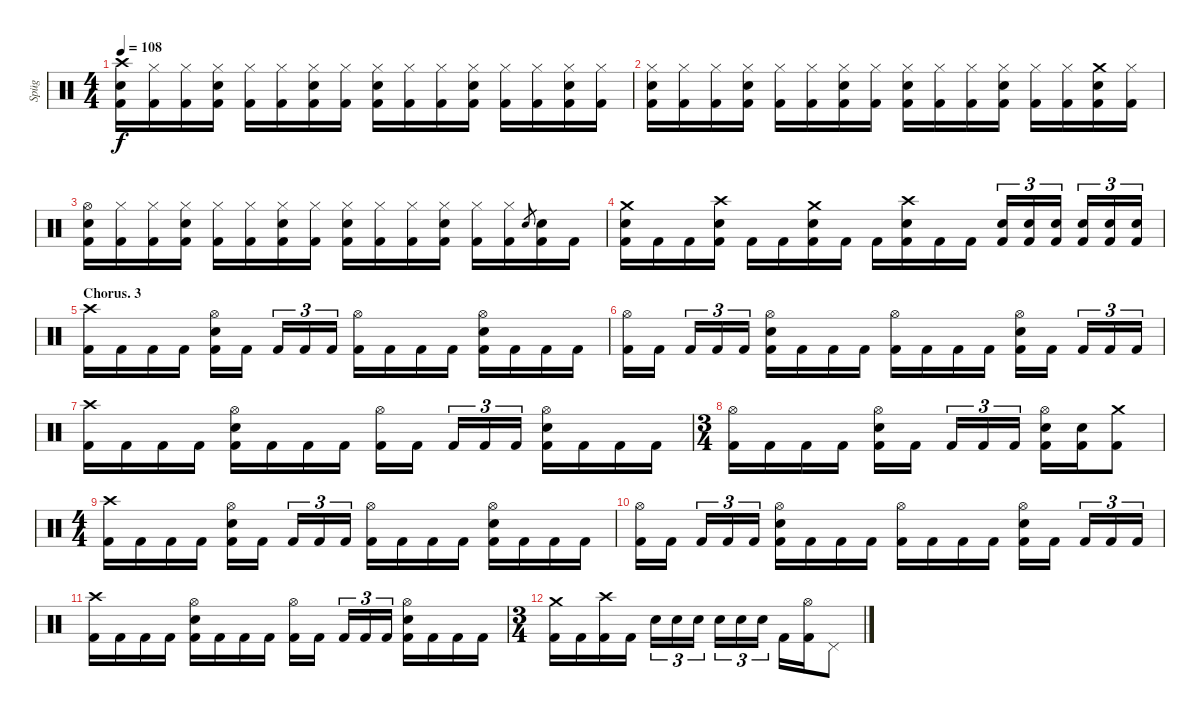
\track ("Spüg" "Spüg") {instrument percussion}
\staff {score}
\articulation defaults
\ts (4 4)
\tempo 108
\clef neutral
\ks c
("Crash high (hit)" "Electric Snare (hit)" "Kick (hit) 2").16{dy f} ("Hi-Hat (closed)" "Kick (hit) 2").16 ("Hi-Hat (closed)" "Kick (hit) 2").16 ("Hi-Hat (closed)" "Electric Snare (hit)" "Kick (hit) 2").16 ("Hi-Hat (closed)" "Kick (hit) 2").16 ("Hi-Hat (closed)" "Kick (hit) 2").16 ("Hi-Hat (closed)" "Electric Snare (hit)" "Kick (hit) 2").16 ("Hi-Hat (closed)" "Kick (hit) 2").16 ("Hi-Hat (closed)" "Electric Snare (hit)" "Kick (hit) 2").16 ("Hi-Hat (closed)" "Kick (hit) 2").16 ("Hi-Hat (closed)" "Kick (hit) 2").16 ("Hi-Hat (closed)" "Electric Snare (hit)" "Kick (hit) 2").16 ("Hi-Hat (closed)" "Kick (hit) 2").16 ("Hi-Hat (closed)" "Kick (hit) 2").16 ("Hi-Hat (closed)" "Electric Snare (hit)" "Kick (hit) 2").16 ("Hi-Hat (closed)" "Kick (hit) 2").16 |
("Hi-Hat (closed)" "Electric Snare (hit)" "Kick (hit) 2").16 ("Hi-Hat (closed)" "Kick (hit) 2").16 ("Hi-Hat (closed)" "Kick (hit) 2").16 ("Hi-Hat (closed)" "Electric Snare (hit)" "Kick (hit) 2").16 ("Hi-Hat (closed)" "Kick (hit) 2").16 ("Hi-Hat (closed)" "Kick (hit) 2").16 ("Hi-Hat (closed)" "Electric Snare (hit)" "Kick (hit) 2").16 ("Hi-Hat (closed)" "Kick (hit) 2").16 ("Hi-Hat (closed)" "Electric Snare (hit)" "Kick (hit) 2").16 ("Hi-Hat (closed)" "Kick (hit) 2").16 ("Hi-Hat (closed)" "Kick (hit) 2").16 ("Hi-Hat (closed)" "Electric Snare (hit)" "Kick (hit) 2").16 ("Hi-Hat (closed)" "Kick (hit) 2").16 ("Hi-Hat (closed)" "Kick (hit) 2").16 ("Crash medium (hit)" "Electric Snare (hit)" "Kick (hit) 2").16 ("Hi-Hat (closed)" "Kick (hit) 2").16 |
("Hi-Hat (open)" "Electric Snare (hit)" "Kick (hit) 2").16 ("Hi-Hat (closed)" "Kick (hit) 2").16 ("Hi-Hat (closed)" "Kick (hit) 2").16 ("Hi-Hat (closed)" "Electric Snare (hit)" "Kick (hit) 2").16 ("Hi-Hat (closed)" "Kick (hit) 2").16 ("Hi-Hat (closed)" "Kick (hit) 2").16 ("Hi-Hat (closed)" "Electric Snare (hit)" "Kick (hit) 2").16 ("Hi-Hat (closed)" "Kick (hit) 2").16 ("Hi-Hat (closed)" "Electric Snare (hit)" "Kick (hit) 2").16 ("Hi-Hat (closed)" "Kick (hit) 2").16 ("Hi-Hat (closed)" "Kick (hit) 2").16 ("Hi-Hat (closed)" "Electric Snare (hit)" "Kick (hit) 2").16 ("Hi-Hat (closed)" "Kick (hit) 2").16 ("Hi-Hat (closed)" "Kick (hit) 2").16 "Electric Snare (hit)".8{gr} ("Electric Snare (hit)" "Kick (hit) 2").16 "Kick (hit) 2".16 |
("Crash medium (hit)" "Electric Snare (hit)" "Kick (hit) 2").16 "Kick (hit) 2".16 "Kick (hit) 2".16 ("Crash high (hit)" "Electric Snare (hit)" "Kick (hit) 2").16 "Kick (hit) 2".16 "Kick (hit) 2".16 ("Crash medium (hit)" "Electric Snare (hit)" "Kick (hit) 2").16 "Kick (hit) 2".16 "Kick (hit) 2".16 ("Crash high (hit)" "Electric Snare (hit)" "Kick (hit) 2").16 "Kick (hit) 2".16 "Kick (hit) 2".16 ("Electric Snare (hit)" "Kick (hit) 2").16{tu (3 2)} ("Electric Snare (hit)" "Kick (hit) 2").16{tu (3 2)} ("Electric Snare (hit)" "Kick (hit) 2").16{tu (3 2)} ("Electric Snare (hit)" "Kick (hit) 2").16{tu (3 2)} ("Electric Snare (hit)" "Kick (hit) 2").16{tu (3 2)} ("Electric Snare (hit)" "Kick (hit) 2").16{tu (3 2)} |
\section ("" "Chorus. 3")
("Crash high (hit)" "Kick (hit) 2").16 "Kick (hit) 2".16 "Kick (hit) 2".16 "Kick (hit) 2".16 ("Hi-Hat (open)" "Electric Snare (hit)" "Kick (hit) 2").16 "Kick (hit) 2".16 "Kick (hit) 2".16{tu (3 2)} "Kick (hit) 2".16{tu (3 2)} "Kick (hit) 2".16{tu (3 2)} ("Hi-Hat (open)" "Kick (hit) 2").16 "Kick (hit) 2".16 "Kick (hit) 2".16 "Kick (hit) 2".16 ("Hi-Hat (open)" "Electric Snare (hit)" "Kick (hit) 2").16 "Kick (hit) 2".16 "Kick (hit) 2".16 "Kick (hit) 2".16 |
("Hi-Hat (open)" "Kick (hit) 2").16 "Kick (hit) 2".16 "Kick (hit) 2".16{tu (3 2)} "Kick (hit) 2".16{tu (3 2)} "Kick (hit) 2".16{tu (3 2)} ("Hi-Hat (open)" "Electric Snare (hit)" "Kick (hit) 2").16 "Kick (hit) 2".16 "Kick (hit) 2".16 "Kick (hit) 2".16 ("Hi-Hat (open)" "Kick (hit) 2").16 "Kick (hit) 2".16 "Kick (hit) 2".16 "Kick (hit) 2".16 ("Hi-Hat (open)" "Electric Snare (hit)" "Kick (hit) 2").16 "Kick (hit) 2".16 "Kick (hit) 2".16{tu (3 2)} "Kick (hit) 2".16{tu (3 2)} "Kick (hit) 2".16{tu (3 2)} |
("Crash high (hit)" "Kick (hit) 2").16 "Kick (hit) 2".16 "Kick (hit) 2".16 "Kick (hit) 2".16 ("Hi-Hat (open)" "Electric Snare (hit)" "Kick (hit) 2").16 "Kick (hit) 2".16 "Kick (hit) 2".16 "Kick (hit) 2".16 ("Hi-Hat (open)" "Kick (hit) 2").16 "Kick (hit) 2".16 "Kick (hit) 2".16{tu (3 2)} "Kick (hit) 2".16{tu (3 2)} "Kick (hit) 2".16{tu (3 2)} ("Hi-Hat (open)" "Electric Snare (hit)" "Kick (hit) 2").16 "Kick (hit) 2".16 "Kick (hit) 2".16 "Kick (hit) 2".16 |
\ts (3 4)
("Hi-Hat (open)" "Kick (hit) 2").16 "Kick (hit) 2".16 "Kick (hit) 2".16 "Kick (hit) 2".16 ("Hi-Hat (open)" "Electric Snare (hit)" "Kick (hit) 2").16 "Kick (hit) 2".16 "Kick (hit) 2".16{tu (3 2)} "Kick (hit) 2".16{tu (3 2)} "Kick (hit) 2".16{tu (3 2)} ("Hi-Hat (open)" "Electric Snare (hit)" "Kick (hit) 2").16 ("Electric Snare (hit)" "Kick (hit) 2").16 ("Crash medium (hit)" "Kick (hit) 2").8 |
\ts (4 4)
("Crash high (hit)" "Kick (hit) 2").16 "Kick (hit) 2".16 "Kick (hit) 2".16 "Kick (hit) 2".16 ("Hi-Hat (open)" "Electric Snare (hit)" "Kick (hit) 2").16 "Kick (hit) 2".16 "Kick (hit) 2".16{tu (3 2)} "Kick (hit) 2".16{tu (3 2)} "Kick (hit) 2".16{tu (3 2)} ("Hi-Hat (open)" "Kick (hit) 2").16 "Kick (hit) 2".16 "Kick (hit) 2".16 "Kick (hit) 2".16 ("Hi-Hat (open)" "Electric Snare (hit)" "Kick (hit) 2").16 "Kick (hit) 2".16 "Kick (hit) 2".16 "Kick (hit) 2".16 |
("Hi-Hat (open)" "Kick (hit) 2").16 "Kick (hit) 2".16 "Kick (hit) 2".16{tu (3 2)} "Kick (hit) 2".16{tu (3 2)} "Kick (hit) 2".16{tu (3 2)} ("Hi-Hat (open)" "Electric Snare (hit)" "Kick (hit) 2").16 "Kick (hit) 2".16 "Kick (hit) 2".16 "Kick (hit) 2".16 ("Hi-Hat (open)" "Kick (hit) 2").16 "Kick (hit) 2".16 "Kick (hit) 2".16 "Kick (hit) 2".16 ("Hi-Hat (open)" "Electric Snare (hit)" "Kick (hit) 2").16 "Kick (hit) 2".16 "Kick (hit) 2".16{tu (3 2)} "Kick (hit) 2".16{tu (3 2)} "Kick (hit) 2".16{tu (3 2)} |
("Crash high (hit)" "Kick (hit) 2").16 "Kick (hit) 2".16 "Kick (hit) 2".16 "Kick (hit) 2".16 ("Hi-Hat (open)" "Electric Snare (hit)" "Kick (hit) 2").16 "Kick (hit) 2".16 "Kick (hit) 2".16 "Kick (hit) 2".16 ("Hi-Hat (open)" "Kick (hit) 2").16 "Kick (hit) 2".16 "Kick (hit) 2".16{tu (3 2)} "Kick (hit) 2".16{tu (3 2)} "Kick (hit) 2".16{tu (3 2)} ("Hi-Hat (open)" "Electric Snare (hit)" "Kick (hit) 2").16 "Kick (hit) 2".16 "Kick (hit) 2".16 "Kick (hit) 2".16 |
\ts (3 4)
("Crash medium (hit)" "Kick (hit) 2").16 "Kick (hit) 2".16 ("Crash high (hit)" "Kick (hit) 2").16 "Kick (hit) 2".16 "Electric Snare (hit)".16{tu (3 2)} "Electric Snare (hit)".16{tu (3 2)} "Electric Snare (hit)".16{tu (3 2)} "Electric Snare (hit)".16{tu (3 2)} "Electric Snare (hit)".16{tu (3 2)} "Electric Snare (hit)".16{tu (3 2)} "Kick (hit) 2".16 ("Hi-Hat (open)" "Kick (hit) 2").16 "Pedal Hi-Hat (hit)".8
